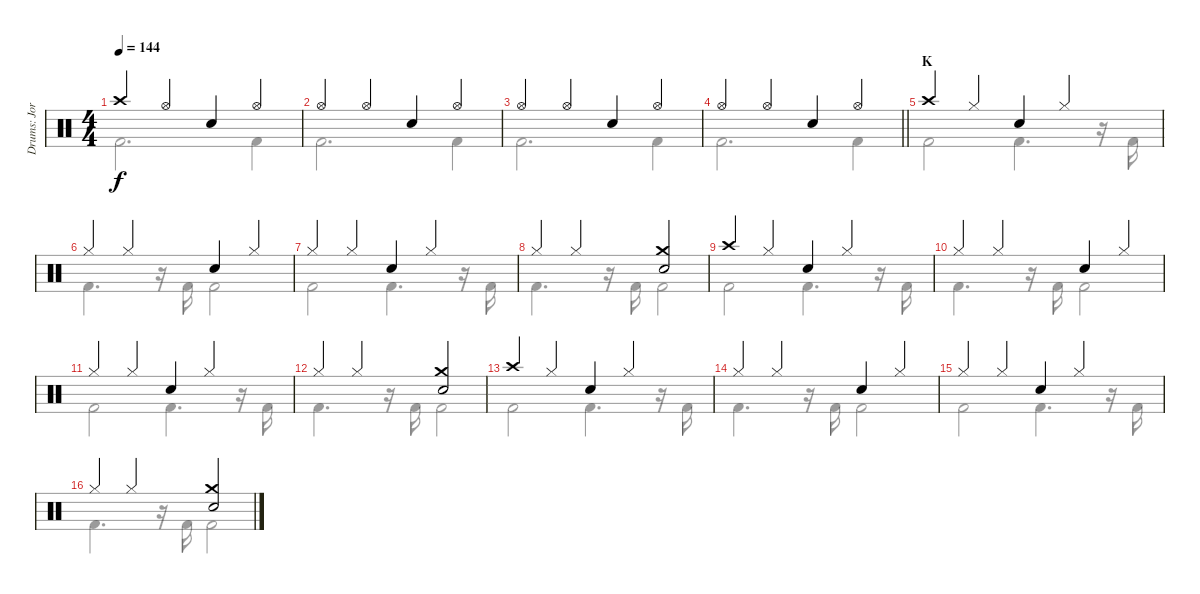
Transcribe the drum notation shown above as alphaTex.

\track ("Drums: Jorg" "Drums: Jor") {instrument percussion}
\staff {score}
\articulation defaults
\voice
\ts (4 4)
\tempo 144
\clef neutral
\ks c "Crash high (hit)".4{dy f} "Hi-Hat (open)".4 "Snare (hit) 2".4 "Hi-Hat (open)".4
|
"Hi-Hat (open)".4 "Hi-Hat (open)".4 "Snare (hit) 2".4 "Hi-Hat (open)".4 |
"Hi-Hat (open)".4 "Hi-Hat (open)".4 "Snare (hit) 2".4 "Hi-Hat (open)".4 |
\barLineRight lightlight "Hi-Hat (open)".4 "Hi-Hat (open)".4 "Snare (hit) 2".4 "Hi-Hat (open)".4
|
\section ("" "K")
"Crash high (hit)".4 "Hi-Hat (closed)".4 "Snare (hit) 2".4 "Hi-Hat (closed)".4 |
"Hi-Hat (closed)".4 "Hi-Hat (closed)".4 "Snare (hit) 2".4 "Hi-Hat (closed)".4 |
"Hi-Hat (closed)".4 "Hi-Hat (closed)".4 "Snare (hit) 2".4 "Hi-Hat (closed)".4 |
"Hi-Hat (closed)".4 "Hi-Hat (closed)".4 ("Crash medium (hit)" "Snare (hit) 2").2 |
"Crash high (hit)".4 "Hi-Hat (closed)".4 "Snare (hit) 2".4 "Hi-Hat (closed)".4 |
"Hi-Hat (closed)".4 "Hi-Hat (closed)".4 "Snare (hit) 2".4 "Hi-Hat (closed)".4 |
"Hi-Hat (closed)".4 "Hi-Hat (closed)".4 "Snare (hit) 2".4 "Hi-Hat (closed)".4 |
"Hi-Hat (closed)".4 "Hi-Hat (closed)".4 ("Crash medium (hit)" "Snare (hit) 2").2 |
"Crash high (hit)".4 "Hi-Hat (closed)".4 "Snare (hit) 2".4 "Hi-Hat (closed)".4 |
"Hi-Hat (closed)".4 "Hi-Hat (closed)".4 "Snare (hit) 2".4 "Hi-Hat (closed)".4 |
"Hi-Hat (closed)".4 "Hi-Hat (closed)".4 "Snare (hit) 2".4 "Hi-Hat (closed)".4 |
"Hi-Hat (closed)".4 "Hi-Hat (closed)".4 ("Crash medium (hit)" "Snare (hit) 2").2
\voice
\clef neutral
\ottava regular
\simile none
\ks c "Kick (hit) 2".2{d dy f} "Kick (hit) 2".4
|
"Kick (hit) 2".2{d} "Kick (hit) 2".4 |
"Kick (hit) 2".2{d} "Kick (hit) 2".4 |
\barLineRight lightlight "Kick (hit) 2".2{d} "Kick (hit) 2".4
|
"Kick (hit) 2".2 "Kick (hit) 2".4{d} r.16 "Kick (hit) 2".16 |
"Kick (hit) 2".4{d} r.16 "Kick (hit) 2".16 "Kick (hit) 2".2 |
"Kick (hit) 2".2 "Kick (hit) 2".4{d} r.16 "Kick (hit) 2".16 |
"Kick (hit) 2".4{d} r.16 "Kick (hit) 2".16 "Kick (hit) 2".2 |
"Kick (hit) 2".2 "Kick (hit) 2".4{d} r.16 "Kick (hit) 2".16 |
"Kick (hit) 2".4{d} r.16 "Kick (hit) 2".16 "Kick (hit) 2".2 |
"Kick (hit) 2".2 "Kick (hit) 2".4{d} r.16 "Kick (hit) 2".16 |
"Kick (hit) 2".4{d} r.16 "Kick (hit) 2".16 "Kick (hit) 2".2 |
"Kick (hit) 2".2 "Kick (hit) 2".4{d} r.16 "Kick (hit) 2".16 |
"Kick (hit) 2".4{d} r.16 "Kick (hit) 2".16 "Kick (hit) 2".2 |
"Kick (hit) 2".2 "Kick (hit) 2".4{d} r.16 "Kick (hit) 2".16 |
"Kick (hit) 2".4{d} r.16 "Kick (hit) 2".16 "Kick (hit) 2".2
